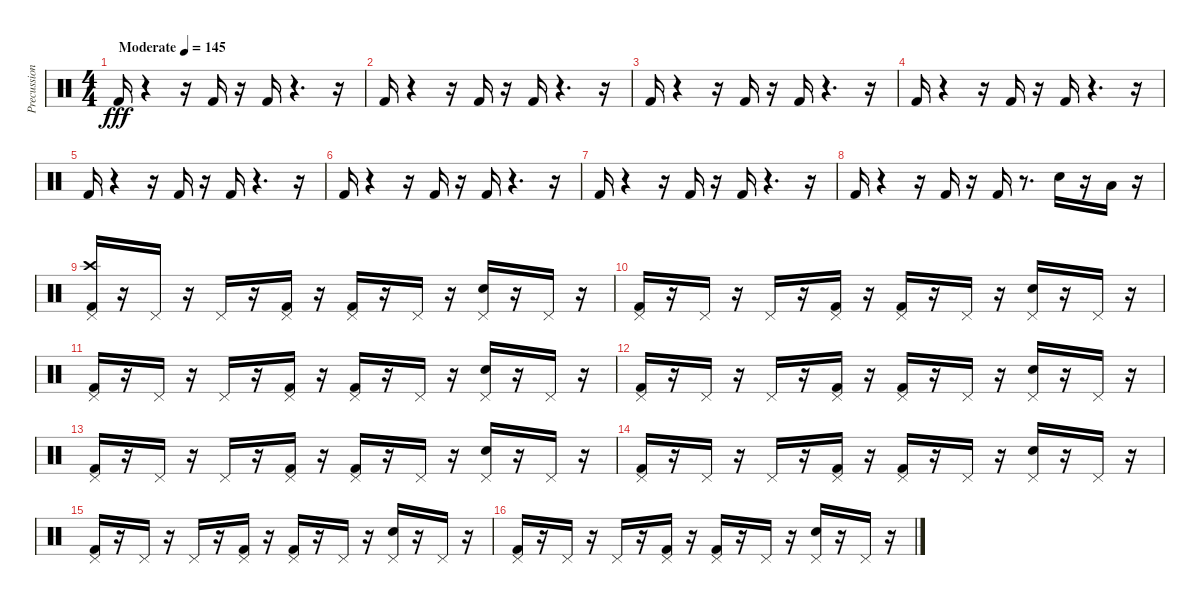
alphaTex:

\track ("Precussion" "Precussion") {instrument percussion}
\staff {score}
\articulation defaults
\ts (4 4)
\tempo (145 "Moderate")
\clef neutral
\ks c "Kick (hit) 2".16{dy fff}
r.4 r.16 "Kick (hit) 2".16 r.16 "Kick (hit) 2".16 r.4{d} r.16 |
"Kick (hit) 2".16 r.4 r.16 "Kick (hit) 2".16 r.16 "Kick (hit) 2".16 r.4{d} r.16 |
"Kick (hit) 2".16 r.4 r.16 "Kick (hit) 2".16 r.16 "Kick (hit) 2".16 r.4{d} r.16 |
"Kick (hit) 2".16 r.4 r.16 "Kick (hit) 2".16 r.16 "Kick (hit) 2".16 r.4{d} r.16 |
"Kick (hit) 2".16 r.4 r.16 "Kick (hit) 2".16 r.16 "Kick (hit) 2".16 r.4{d} r.16 |
"Kick (hit) 2".16 r.4 r.16 "Kick (hit) 2".16 r.16 "Kick (hit) 2".16 r.4{d} r.16 |
"Kick (hit) 2".16 r.4 r.16 "Kick (hit) 2".16 r.16 "Kick (hit) 2".16 r.4{d} r.16 |
"Kick (hit) 2".16 r.4 r.16 "Kick (hit) 2".16 r.16 "Kick (hit) 2".16 r.8{d} "Snare (hit) 2".16 r.16 "Low Floor Tom (hit)".16 r.16 |
("Kick (hit) 2" "Crash high (hit)" "Pedal Hi-Hat (hit)").16 r.16 "Pedal Hi-Hat (hit)".16 r.16 "Pedal Hi-Hat (hit)".16 r.16 ("Pedal Hi-Hat (hit)" "Kick (hit) 2").16 r.16 ("Pedal Hi-Hat (hit)" "Kick (hit) 2").16 r.16 "Pedal Hi-Hat (hit)".16 r.16 ("Pedal Hi-Hat (hit)" "Snare (hit) 2").16 r.16 "Pedal Hi-Hat (hit)".16 r.16 |
("Kick (hit) 2" "Pedal Hi-Hat (hit)").16 r.16 "Pedal Hi-Hat (hit)".16 r.16 "Pedal Hi-Hat (hit)".16 r.16 ("Kick (hit) 2" "Pedal Hi-Hat (hit)").16 r.16 ("Kick (hit) 2" "Pedal Hi-Hat (hit)").16 r.16 "Pedal Hi-Hat (hit)".16 r.16 ("Pedal Hi-Hat (hit)" "Snare (hit) 2").16 r.16 "Pedal Hi-Hat (hit)".16 r.16 |
("Kick (hit) 2" "Pedal Hi-Hat (hit)").16 r.16 "Pedal Hi-Hat (hit)".16 r.16 "Pedal Hi-Hat (hit)".16 r.16 ("Kick (hit) 2" "Pedal Hi-Hat (hit)").16 r.16 ("Kick (hit) 2" "Pedal Hi-Hat (hit)").16 r.16 "Pedal Hi-Hat (hit)".16 r.16 ("Pedal Hi-Hat (hit)" "Snare (hit) 2").16 r.16 "Pedal Hi-Hat (hit)".16 r.16 |
("Kick (hit) 2" "Pedal Hi-Hat (hit)").16 r.16 "Pedal Hi-Hat (hit)".16 r.16 "Pedal Hi-Hat (hit)".16 r.16 ("Kick (hit) 2" "Pedal Hi-Hat (hit)").16 r.16 ("Kick (hit) 2" "Pedal Hi-Hat (hit)").16 r.16 "Pedal Hi-Hat (hit)".16 r.16 ("Pedal Hi-Hat (hit)" "Snare (hit) 2").16 r.16 "Pedal Hi-Hat (hit)".16 r.16 |
("Kick (hit) 2" "Pedal Hi-Hat (hit)").16 r.16 "Pedal Hi-Hat (hit)".16 r.16 "Pedal Hi-Hat (hit)".16 r.16 ("Kick (hit) 2" "Pedal Hi-Hat (hit)").16 r.16 ("Kick (hit) 2" "Pedal Hi-Hat (hit)").16 r.16 "Pedal Hi-Hat (hit)".16 r.16 ("Pedal Hi-Hat (hit)" "Snare (hit) 2").16 r.16 "Pedal Hi-Hat (hit)".16 r.16 |
("Kick (hit) 2" "Pedal Hi-Hat (hit)").16 r.16 "Pedal Hi-Hat (hit)".16 r.16 "Pedal Hi-Hat (hit)".16 r.16 ("Kick (hit) 2" "Pedal Hi-Hat (hit)").16 r.16 ("Kick (hit) 2" "Pedal Hi-Hat (hit)").16 r.16 "Pedal Hi-Hat (hit)".16 r.16 ("Pedal Hi-Hat (hit)" "Snare (hit) 2").16 r.16 "Pedal Hi-Hat (hit)".16 r.16 |
("Kick (hit) 2" "Pedal Hi-Hat (hit)").16 r.16 "Pedal Hi-Hat (hit)".16 r.16 "Pedal Hi-Hat (hit)".16 r.16 ("Kick (hit) 2" "Pedal Hi-Hat (hit)").16 r.16 ("Kick (hit) 2" "Pedal Hi-Hat (hit)").16 r.16 "Pedal Hi-Hat (hit)".16 r.16 ("Pedal Hi-Hat (hit)" "Snare (hit) 2").16 r.16 "Pedal Hi-Hat (hit)".16 r.16 |
("Kick (hit) 2" "Pedal Hi-Hat (hit)").16 r.16 "Pedal Hi-Hat (hit)".16 r.16 "Pedal Hi-Hat (hit)".16 r.16 ("Kick (hit) 2" "Pedal Hi-Hat (hit)").16 r.16 ("Kick (hit) 2" "Pedal Hi-Hat (hit)").16 r.16 "Pedal Hi-Hat (hit)".16 r.16 ("Pedal Hi-Hat (hit)" "Snare (hit) 2").16 r.16 "Pedal Hi-Hat (hit)".16 r.16
